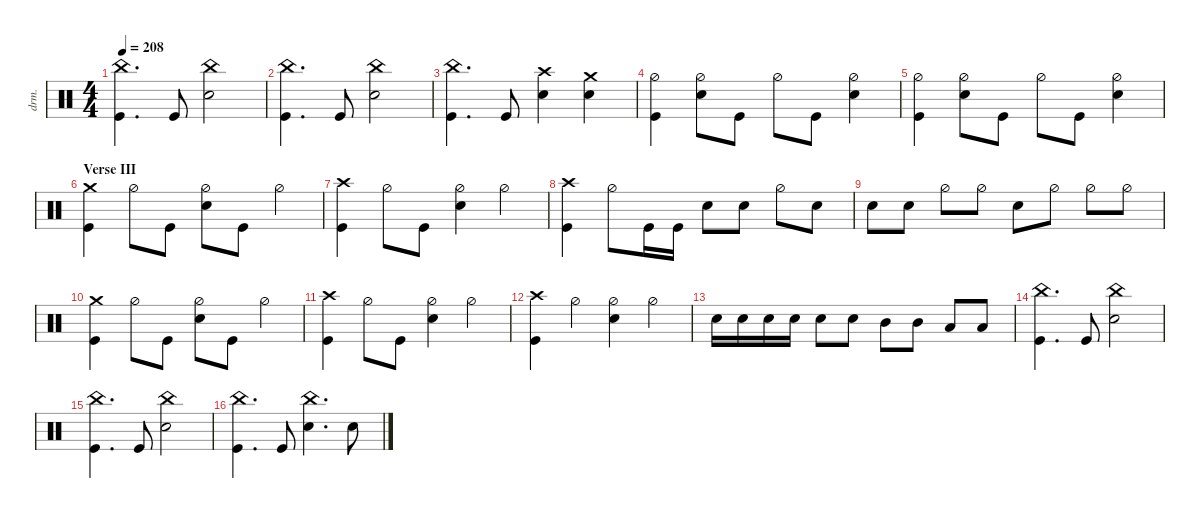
\defaultSystemsLayout 4
\hideDynamics
\bracketExtendMode nobrackets
\otherSystemsTrackNameOrientation horizontal
\track ("Drums" "drm.") {multiBarRest instrument percussion}
\staff
\articulation defaults
\ts (4 4)
\tempo 208
\clef neutral
\ks c
("China (hit)" "Kick (hit)").4{d dy f} "Kick (hit)".8 ("Snare (hit) 2" "China (hit)").2 |
("China (hit)" "Kick (hit)").4{d} "Kick (hit)".8 ("Snare (hit) 2" "China (hit)").2 |
("China (hit)" "Kick (hit)").4{d} "Kick (hit)".8 ("Snare (hit) 2" "Crash high (hit)").4 ("Snare (hit) 2" "Crash medium (hit)").4 |
("Kick (hit)" "Hi-Hat (half)").4 ("Snare (hit) 2" "Hi-Hat (half)").8 "Kick (hit)".8 "Hi-Hat (half)".8 "Kick (hit)".8 ("Snare (hit) 2" "Hi-Hat (half)").4 |
("Kick (hit)" "Hi-Hat (half)").4 ("Snare (hit) 2" "Hi-Hat (half)").8 "Kick (hit)".8 "Hi-Hat (half)".8 "Kick (hit)".8 ("Snare (hit) 2" "Hi-Hat (half)").4 |
\section ("" "Verse III")
("Crash medium (hit)" "Kick (hit)").4 "Hi-Hat (half)".8 "Kick (hit)".8 ("Hi-Hat (half)" "Snare (hit) 2").8 "Kick (hit)".8 "Hi-Hat (half)".4 |
("Kick (hit)" "Crash high (hit)").4 "Hi-Hat (half)".8 "Kick (hit)".8 ("Snare (hit) 2" "Hi-Hat (half)").4 "Hi-Hat (half)".4 |
("Crash high (hit)" "Kick (hit)").4 "Hi-Hat (half)".8 "Kick (hit)".16 "Kick (hit)".16 "Snare (hit) 2".8 "Snare (hit) 2".8 "Hi-Hat (half)".8 "Snare (hit) 2".8 |
"Snare (hit) 2".8 "Snare (hit) 2".8 "Hi-Hat (half)".8 "Hi-Hat (half)".8 "Snare (hit) 2".8 "Hi-Hat (half)".8 "Hi-Hat (half)".8 "Hi-Hat (half)".8 |
("Crash medium (hit)" "Kick (hit)").4 "Hi-Hat (half)".8 "Kick (hit)".8 ("Hi-Hat (half)" "Snare (hit) 2").8 "Kick (hit)".8 "Hi-Hat (half)".4 |
("Kick (hit)" "Crash high (hit)").4 "Hi-Hat (half)".8 "Kick (hit)".8 ("Snare (hit) 2" "Hi-Hat (half)").4 "Hi-Hat (half)".4 |
("Kick (hit)" "Crash high (hit)").4 "Hi-Hat (half)".4 ("Snare (hit) 2" "Hi-Hat (half)").4 "Hi-Hat (half)".4 |
"Snare (hit) 2".16 "Snare (hit) 2".16 "Snare (hit) 2".16 "Snare (hit) 2".16 "Snare (hit) 2".8 "Snare (hit) 2".8 "Mid Tom (hit)".8{dy ff} "Mid Tom (hit)".8 "Low Tom (hit)".8 "Low Tom (hit)".8 |
("China (hit)" "Kick (hit)").4{d dy f} "Kick (hit)".8 ("Snare (hit) 2" "China (hit)").2 |
("China (hit)" "Kick (hit)").4{d} "Kick (hit)".8 ("Snare (hit) 2" "China (hit)").2 |
("China (hit)" "Kick (hit)").4{d} "Kick (hit)".8 ("Snare (hit) 2" "China (hit)").4{d} "Snare (hit) 2".8
